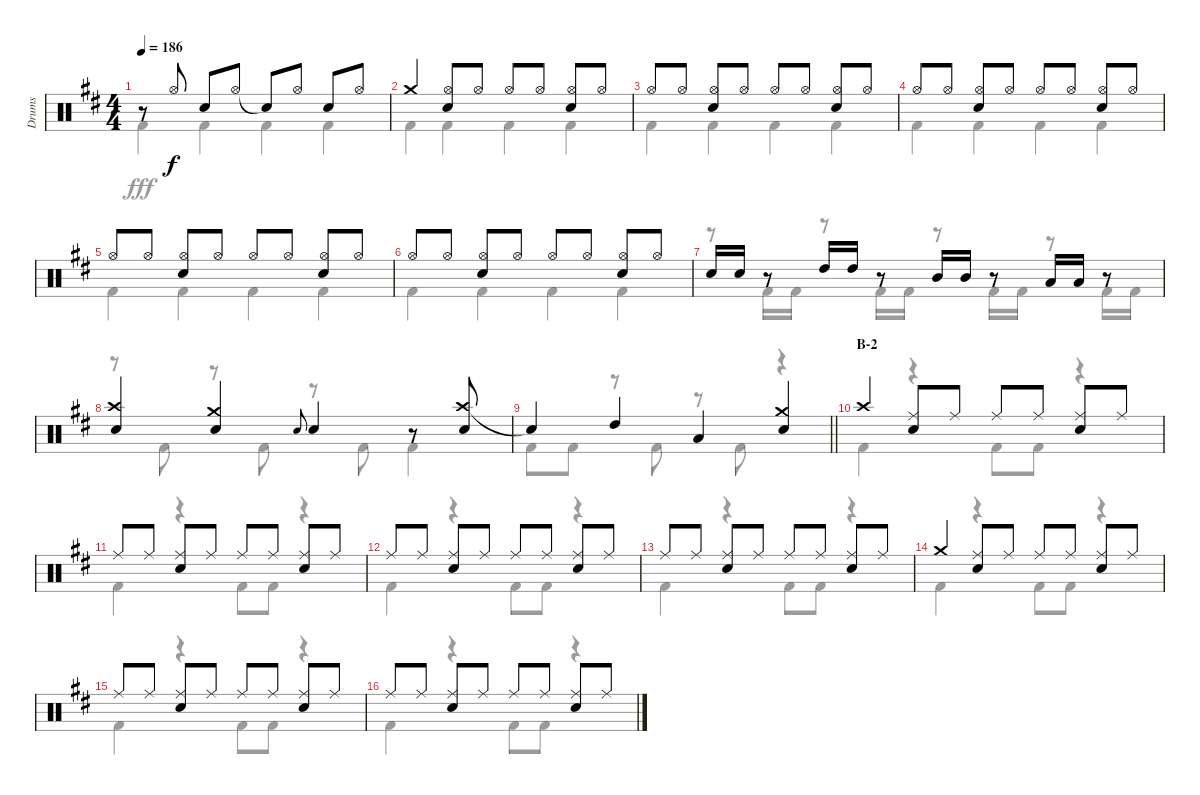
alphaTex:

\track ("Drums" "Drums") {instrument percussion}
\staff {score}
\articulation defaults
\voice
\ts (4 4)
\tempo 186
\clef neutral
\ks d
r.8{dy f} "Hi-Hat (open)".8 "Snare (hit) 2".8 "Hi-Hat (open)".8 "Snare (hit)"{t}.8 "Hi-Hat (open)".8 "Snare (hit) 2".8 "Hi-Hat (open)".8 |
"Crash medium (hit)".4 ("Hi-Hat (open)" "Snare (hit) 2").8 "Hi-Hat (open)".8 "Hi-Hat (open)".8 "Hi-Hat (open)".8 ("Hi-Hat (open)" "Snare (hit) 2").8 "Hi-Hat (open)".8 |
"Hi-Hat (open)".8 "Hi-Hat (open)".8 ("Hi-Hat (open)" "Snare (hit) 2").8 "Hi-Hat (open)".8 "Hi-Hat (open)".8 "Hi-Hat (open)".8 ("Hi-Hat (open)" "Snare (hit) 2").8 "Hi-Hat (open)".8 |
"Hi-Hat (open)".8 "Hi-Hat (open)".8 ("Hi-Hat (open)" "Snare (hit) 2").8 "Hi-Hat (open)".8 "Hi-Hat (open)".8 "Hi-Hat (open)".8 ("Hi-Hat (open)" "Snare (hit) 2").8 "Hi-Hat (open)".8 |
"Hi-Hat (open)".8 "Hi-Hat (open)".8 ("Hi-Hat (open)" "Snare (hit) 2").8 "Hi-Hat (open)".8 "Hi-Hat (open)".8 "Hi-Hat (open)".8 ("Hi-Hat (open)" "Snare (hit) 2").8 "Hi-Hat (open)".8 |
"Hi-Hat (open)".8 "Hi-Hat (open)".8 ("Hi-Hat (open)" "Snare (hit) 2").8 "Hi-Hat (open)".8 "Hi-Hat (open)".8 "Hi-Hat (open)".8 ("Hi-Hat (open)" "Snare (hit) 2").8 "Hi-Hat (open)".8 |
"Snare (hit) 2".16 "Snare (hit) 2".16 r.8 "High Tom (hit)".16 "High Tom (hit)".16 r.8 "Mid Tom (hit)".16 "Mid Tom (hit)".16 r.8 "Low Tom (hit)".16 "Low Tom (hit)".16 r.8 |
("Crash high (hit)" "Snare (hit) 2").4 ("Crash medium (hit)" "Snare (hit) 2").4 "Snare (hit) 2".8{gr onbeat} "Snare (hit) 2".4 r.8 ("Crash high (hit)" "Snare (hit) 2").8 |
\barLineRight lightlight "Snare (hit)"{t}.4 "High Tom (hit)".4 "Low Tom (hit)".4
("Crash medium (hit)" "Snare (hit) 2").4 |
\section ("" "B-2")
"Crash high (hit)".4 ("Ride (middle)" "Snare (hit) 2").8 "Ride (middle)".8 "Ride (middle)".8 "Ride (middle)".8 ("Ride (middle)" "Snare (hit) 2").8 "Ride (middle)".8 |
"Ride (middle)".8 "Ride (middle)".8 ("Ride (middle)" "Snare (hit) 2").8 "Ride (middle)".8 "Ride (middle)".8 "Ride (middle)".8 ("Ride (middle)" "Snare (hit) 2").8 "Ride (middle)".8 |
"Ride (middle)".8 "Ride (middle)".8 ("Ride (middle)" "Snare (hit) 2").8 "Ride (middle)".8 "Ride (middle)".8 "Ride (middle)".8 ("Ride (middle)" "Snare (hit) 2").8 "Ride (middle)".8 |
"Ride (middle)".8 "Ride (middle)".8 ("Ride (middle)" "Snare (hit) 2").8 "Ride (middle)".8 "Ride (middle)".8 "Ride (middle)".8 ("Ride (middle)" "Snare (hit) 2").8 "Ride (middle)".8 |
"Crash medium (hit)".4 ("Ride (middle)" "Snare (hit) 2").8 "Ride (middle)".8 "Ride (middle)".8 "Ride (middle)".8 ("Ride (middle)" "Snare (hit) 2").8 "Ride (middle)".8 |
"Ride (middle)".8 "Ride (middle)".8 ("Ride (middle)" "Snare (hit) 2").8 "Ride (middle)".8 "Ride (middle)".8 "Ride (middle)".8 ("Ride (middle)" "Snare (hit) 2").8 "Ride (middle)".8 |
"Ride (middle)".8 "Ride (middle)".8 ("Ride (middle)" "Snare (hit) 2").8 "Ride (middle)".8 "Ride (middle)".8 "Ride (middle)".8 ("Ride (middle)" "Snare (hit) 2").8 "Ride (middle)".8
\voice
\clef neutral
\ottava regular
\simile none
\ks d "Kick (hit) 2".4{dy fff} "Kick (hit) 2".4 "Kick (hit) 2".4 "Kick (hit) 2".4
|
"Kick (hit) 2".4 "Kick (hit) 2".4 "Kick (hit) 2".4 "Kick (hit) 2".4 |
"Kick (hit) 2".4 "Kick (hit) 2".4 "Kick (hit) 2".4 "Kick (hit) 2".4 |
"Kick (hit) 2".4 "Kick (hit) 2".4 "Kick (hit) 2".4 "Kick (hit) 2".4 |
"Kick (hit) 2".4 "Kick (hit) 2".4 "Kick (hit) 2".4 "Kick (hit) 2".4 |
"Kick (hit) 2".4 "Kick (hit) 2".4 "Kick (hit) 2".4 "Kick (hit) 2".4 |
r.8 "Kick (hit) 2".16 "Kick (hit) 2".16 r.8 "Kick (hit) 2".16 "Kick (hit) 2".16 r.8 "Kick (hit) 2".16 "Kick (hit) 2".16 r.8 "Kick (hit) 2".16 "Kick (hit) 2".16 |
r.8 "Kick (hit) 2".8 r.8 "Kick (hit) 2".8 r.8 "Kick (hit) 2".8 "Kick (hit) 2".4 |
\barLineRight lightlight "Kick (hit) 2".8 "Kick (hit) 2".8
r.8 "Kick (hit) 2".8 r.8 "Kick (hit) 2".8 r.4 |
"Kick (hit) 2".4 r.4 "Kick (hit) 2".8 "Kick (hit) 2".8 r.4 |
"Kick (hit) 2".4 r.4 "Kick (hit) 2".8 "Kick (hit) 2".8 r.4 |
"Kick (hit) 2".4 r.4 "Kick (hit) 2".8 "Kick (hit) 2".8 r.4 |
"Kick (hit) 2".4 r.4 "Kick (hit) 2".8 "Kick (hit) 2".8 r.4 |
"Kick (hit) 2".4 r.4 "Kick (hit) 2".8 "Kick (hit) 2".8 r.4 |
"Kick (hit) 2".4 r.4 "Kick (hit) 2".8 "Kick (hit) 2".8 r.4 |
"Kick (hit) 2".4 r.4 "Kick (hit) 2".8 "Kick (hit) 2".8 r.4
